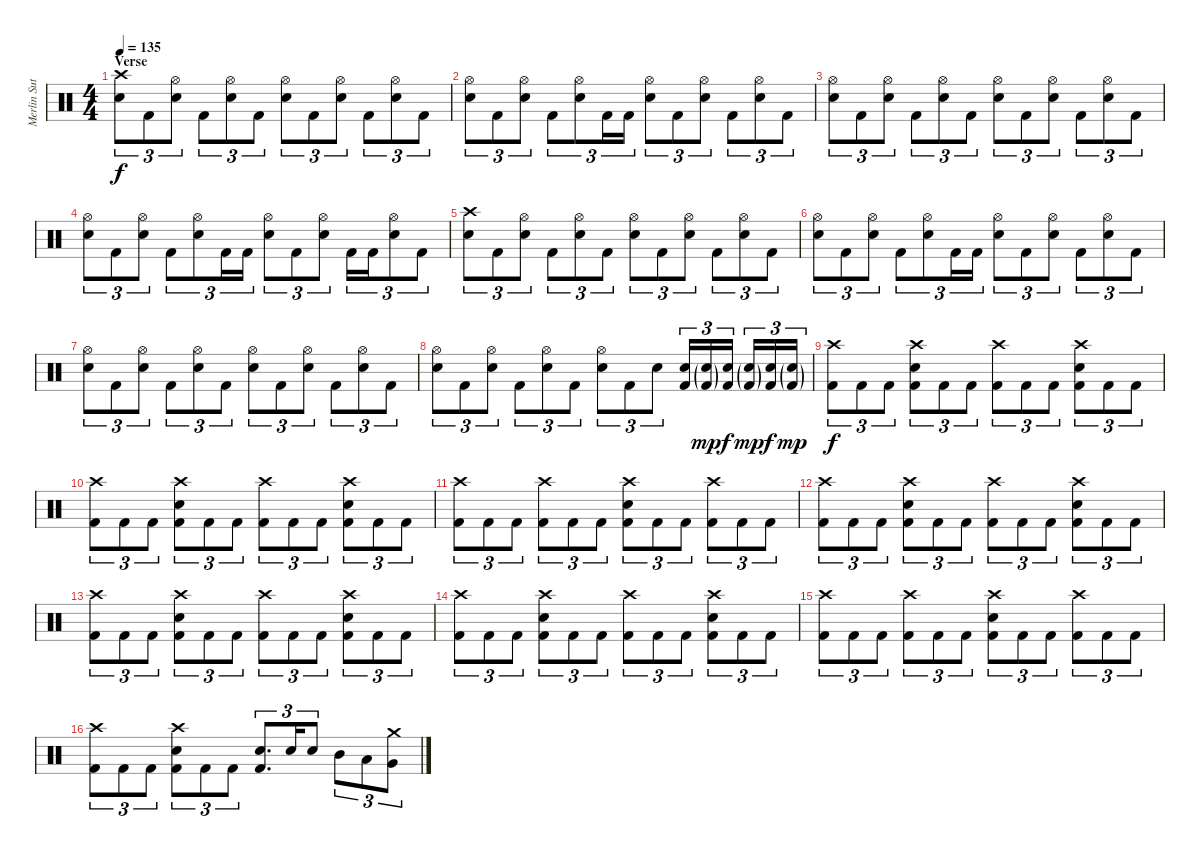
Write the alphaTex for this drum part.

\track ("Merlin Sutter" "Merlin Sut") {instrument percussion}
\staff {score}
\articulation defaults
\ts (4 4)
\section ("" "Verse")
\tempo 135
\clef neutral
\ks c
("Crash high (hit)" "Snare (hit) 2").8{tu (3 2) dy f} "Kick (hit) 2".8{tu (3 2)} ("Hi-Hat (open)" "Snare (hit) 2").8{tu (3 2)} "Kick (hit) 2".8{tu (3 2)} ("Hi-Hat (open)" "Snare (hit) 2").8{tu (3 2)} "Kick (hit) 2".8{tu (3 2)} ("Hi-Hat (open)" "Snare (hit) 2").8{tu (3 2)} "Kick (hit) 2".8{tu (3 2)} ("Hi-Hat (open)" "Snare (hit) 2").8{tu (3 2)} "Kick (hit) 2".8{tu (3 2)} ("Hi-Hat (open)" "Snare (hit) 2").8{tu (3 2)} "Kick (hit) 2".8{tu (3 2)} |
("Hi-Hat (open)" "Snare (hit) 2").8{tu (3 2)} "Kick (hit) 2".8{tu (3 2)} ("Hi-Hat (open)" "Snare (hit) 2").8{tu (3 2)} "Kick (hit) 2".8{tu (3 2)} ("Hi-Hat (open)" "Snare (hit) 2").8{tu (3 2)} "Kick (hit) 2".16{tu (3 2)} "Kick (hit) 2".16{tu (3 2)} ("Hi-Hat (open)" "Snare (hit) 2").8{tu (3 2)} "Kick (hit) 2".8{tu (3 2)} ("Hi-Hat (open)" "Snare (hit) 2").8{tu (3 2)} "Kick (hit) 2".8{tu (3 2)} ("Hi-Hat (open)" "Snare (hit) 2").8{tu (3 2)} "Kick (hit) 2".8{tu (3 2)} |
("Hi-Hat (open)" "Snare (hit) 2").8{tu (3 2)} "Kick (hit) 2".8{tu (3 2)} ("Hi-Hat (open)" "Snare (hit) 2").8{tu (3 2)} "Kick (hit) 2".8{tu (3 2)} ("Hi-Hat (open)" "Snare (hit) 2").8{tu (3 2)} "Kick (hit) 2".8{tu (3 2)} ("Hi-Hat (open)" "Snare (hit) 2").8{tu (3 2)} "Kick (hit) 2".8{tu (3 2)} ("Hi-Hat (open)" "Snare (hit) 2").8{tu (3 2)} "Kick (hit) 2".8{tu (3 2)} ("Hi-Hat (open)" "Snare (hit) 2").8{tu (3 2)} "Kick (hit) 2".8{tu (3 2)} |
("Hi-Hat (open)" "Snare (hit) 2").8{tu (3 2)} "Kick (hit) 2".8{tu (3 2)} ("Hi-Hat (open)" "Snare (hit) 2").8{tu (3 2)} "Kick (hit) 2".8{tu (3 2)} ("Hi-Hat (open)" "Snare (hit) 2").8{tu (3 2)} "Kick (hit) 2".16{tu (3 2)} "Kick (hit) 2".16{tu (3 2)} ("Hi-Hat (open)" "Snare (hit) 2").8{tu (3 2)} "Kick (hit) 2".8{tu (3 2)} ("Hi-Hat (open)" "Snare (hit) 2").8{tu (3 2)} "Kick (hit) 2".16{tu (3 2)} "Kick (hit) 2".16{tu (3 2)} ("Hi-Hat (open)" "Snare (hit) 2").8{tu (3 2)} "Kick (hit) 2".8{tu (3 2)} |
("Crash high (hit)" "Snare (hit) 2").8{tu (3 2)} "Kick (hit) 2".8{tu (3 2)} ("Hi-Hat (open)" "Snare (hit) 2").8{tu (3 2)} "Kick (hit) 2".8{tu (3 2)} ("Hi-Hat (open)" "Snare (hit) 2").8{tu (3 2)} "Kick (hit) 2".8{tu (3 2)} ("Hi-Hat (open)" "Snare (hit) 2").8{tu (3 2)} "Kick (hit) 2".8{tu (3 2)} ("Hi-Hat (open)" "Snare (hit) 2").8{tu (3 2)} "Kick (hit) 2".8{tu (3 2)} ("Hi-Hat (open)" "Snare (hit) 2").8{tu (3 2)} "Kick (hit) 2".8{tu (3 2)} |
("Hi-Hat (open)" "Snare (hit) 2").8{tu (3 2)} "Kick (hit) 2".8{tu (3 2)} ("Hi-Hat (open)" "Snare (hit) 2").8{tu (3 2)} "Kick (hit) 2".8{tu (3 2)} ("Hi-Hat (open)" "Snare (hit) 2").8{tu (3 2)} "Kick (hit) 2".16{tu (3 2)} "Kick (hit) 2".16{tu (3 2)} ("Hi-Hat (open)" "Snare (hit) 2").8{tu (3 2)} "Kick (hit) 2".8{tu (3 2)} ("Hi-Hat (open)" "Snare (hit) 2").8{tu (3 2)} "Kick (hit) 2".8{tu (3 2)} ("Hi-Hat (open)" "Snare (hit) 2").8{tu (3 2)} "Kick (hit) 2".8{tu (3 2)} |
("Hi-Hat (open)" "Snare (hit) 2").8{tu (3 2)} "Kick (hit) 2".8{tu (3 2)} ("Hi-Hat (open)" "Snare (hit) 2").8{tu (3 2)} "Kick (hit) 2".8{tu (3 2)} ("Hi-Hat (open)" "Snare (hit) 2").8{tu (3 2)} "Kick (hit) 2".8{tu (3 2)} ("Hi-Hat (open)" "Snare (hit) 2").8{tu (3 2)} "Kick (hit) 2".8{tu (3 2)} ("Hi-Hat (open)" "Snare (hit) 2").8{tu (3 2)} "Kick (hit) 2".8{tu (3 2)} ("Hi-Hat (open)" "Snare (hit) 2").8{tu (3 2)} "Kick (hit) 2".8{tu (3 2)} |
("Hi-Hat (open)" "Snare (hit) 2").8{tu (3 2)} "Kick (hit) 2".8{tu (3 2)} ("Hi-Hat (open)" "Snare (hit) 2").8{tu (3 2)} "Kick (hit) 2".8{tu (3 2)} ("Hi-Hat (open)" "Snare (hit) 2").8{tu (3 2)} "Kick (hit) 2".8{tu (3 2)} ("Hi-Hat (open)" "Snare (hit) 2").8{tu (3 2)} "Kick (hit) 2".8{tu (3 2)} "Snare (hit) 2".8{tu (3 2)} ("Snare (hit) 2" "Kick (hit) 2").16{tu (3 2)} ("Snare (hit) 2"{g} "Kick (hit) 2"{g}).16{tu (3 2) dy mp} ("Snare (hit) 2" "Kick (hit) 2").16{tu (3 2) dy f beam splitsecondary} ("Snare (hit) 2"{g} "Kick (hit) 2"{g}).16{tu (3 2) dy mp} ("Snare (hit) 2" "Kick (hit) 2").16{tu (3 2) dy f} ("Snare (hit) 2"{g} "Kick (hit) 2"{g}).16{tu (3 2) dy mp} |
("Crash high (hit)" "Kick (hit) 2").8{tu (3 2) dy f} "Kick (hit) 2".8{tu (3 2)} "Kick (hit) 2".8{tu (3 2)} ("Crash high (hit)" "Snare (hit) 2" "Kick (hit) 2").8{tu (3 2)} "Kick (hit) 2".8{tu (3 2)} "Kick (hit) 2".8{tu (3 2)} ("Crash high (hit)" "Kick (hit) 2").8{tu (3 2)} "Kick (hit) 2".8{tu (3 2)} "Kick (hit) 2".8{tu (3 2)} ("Crash high (hit)" "Snare (hit) 2" "Kick (hit) 2").8{tu (3 2)} "Kick (hit) 2".8{tu (3 2)} "Kick (hit) 2".8{tu (3 2)} |
("Crash high (hit)" "Kick (hit) 2").8{tu (3 2)} "Kick (hit) 2".8{tu (3 2)} "Kick (hit) 2".8{tu (3 2)} ("Crash high (hit)" "Snare (hit) 2" "Kick (hit) 2").8{tu (3 2)} "Kick (hit) 2".8{tu (3 2)} "Kick (hit) 2".8{tu (3 2)} ("Crash high (hit)" "Kick (hit) 2").8{tu (3 2)} "Kick (hit) 2".8{tu (3 2)} "Kick (hit) 2".8{tu (3 2)} ("Crash high (hit)" "Snare (hit) 2" "Kick (hit) 2").8{tu (3 2)} "Kick (hit) 2".8{tu (3 2)} "Kick (hit) 2".8{tu (3 2)} |
("Crash high (hit)" "Kick (hit) 2").8{tu (3 2)} "Kick (hit) 2".8{tu (3 2)} "Kick (hit) 2".8{tu (3 2)} ("Crash high (hit)" "Kick (hit) 2").8{tu (3 2)} "Kick (hit) 2".8{tu (3 2)} "Kick (hit) 2".8{tu (3 2)} ("Crash high (hit)" "Snare (hit) 2" "Kick (hit) 2").8{tu (3 2)} "Kick (hit) 2".8{tu (3 2)} "Kick (hit) 2".8{tu (3 2)} ("Crash high (hit)" "Kick (hit) 2").8{tu (3 2)} "Kick (hit) 2".8{tu (3 2)} "Kick (hit) 2".8{tu (3 2)} |
("Crash high (hit)" "Kick (hit) 2").8{tu (3 2)} "Kick (hit) 2".8{tu (3 2)} "Kick (hit) 2".8{tu (3 2)} ("Crash high (hit)" "Snare (hit) 2" "Kick (hit) 2").8{tu (3 2)} "Kick (hit) 2".8{tu (3 2)} "Kick (hit) 2".8{tu (3 2)} ("Crash high (hit)" "Kick (hit) 2").8{tu (3 2)} "Kick (hit) 2".8{tu (3 2)} "Kick (hit) 2".8{tu (3 2)} ("Crash high (hit)" "Snare (hit) 2" "Kick (hit) 2").8{tu (3 2)} "Kick (hit) 2".8{tu (3 2)} "Kick (hit) 2".8{tu (3 2)} |
("Crash high (hit)" "Kick (hit) 2").8{tu (3 2)} "Kick (hit) 2".8{tu (3 2)} "Kick (hit) 2".8{tu (3 2)} ("Crash high (hit)" "Snare (hit) 2" "Kick (hit) 2").8{tu (3 2)} "Kick (hit) 2".8{tu (3 2)} "Kick (hit) 2".8{tu (3 2)} ("Crash high (hit)" "Kick (hit) 2").8{tu (3 2)} "Kick (hit) 2".8{tu (3 2)} "Kick (hit) 2".8{tu (3 2)} ("Crash high (hit)" "Snare (hit) 2" "Kick (hit) 2").8{tu (3 2)} "Kick (hit) 2".8{tu (3 2)} "Kick (hit) 2".8{tu (3 2)} |
("Crash high (hit)" "Kick (hit) 2").8{tu (3 2)} "Kick (hit) 2".8{tu (3 2)} "Kick (hit) 2".8{tu (3 2)} ("Crash high (hit)" "Snare (hit) 2" "Kick (hit) 2").8{tu (3 2)} "Kick (hit) 2".8{tu (3 2)} "Kick (hit) 2".8{tu (3 2)} ("Crash high (hit)" "Kick (hit) 2").8{tu (3 2)} "Kick (hit) 2".8{tu (3 2)} "Kick (hit) 2".8{tu (3 2)} ("Crash high (hit)" "Snare (hit) 2" "Kick (hit) 2").8{tu (3 2)} "Kick (hit) 2".8{tu (3 2)} "Kick (hit) 2".8{tu (3 2)} |
("Crash high (hit)" "Kick (hit) 2").8{tu (3 2)} "Kick (hit) 2".8{tu (3 2)} "Kick (hit) 2".8{tu (3 2)} ("Crash high (hit)" "Kick (hit) 2").8{tu (3 2)} "Kick (hit) 2".8{tu (3 2)} "Kick (hit) 2".8{tu (3 2)} ("Crash high (hit)" "Snare (hit) 2" "Kick (hit) 2").8{tu (3 2)} "Kick (hit) 2".8{tu (3 2)} "Kick (hit) 2".8{tu (3 2)} ("Crash high (hit)" "Kick (hit) 2").8{tu (3 2)} "Kick (hit) 2".8{tu (3 2)} "Kick (hit) 2".8{tu (3 2)} |
("Crash high (hit)" "Kick (hit) 2").8{tu (3 2)} "Kick (hit) 2".8{tu (3 2)} "Kick (hit) 2".8{tu (3 2)} ("Crash high (hit)" "Snare (hit) 2" "Kick (hit) 2").8{tu (3 2)} "Kick (hit) 2".8{tu (3 2)} "Kick (hit) 2".8{tu (3 2)} ("Snare (hit) 2" "Kick (hit) 2").8{d tu (3 2)} "Snare (hit) 2".16{tu (3 2)} "Snare (hit) 2".8{tu (3 2)} "Mid Tom (hit)".8{tu (3 2)} "Low Tom (hit)".8{tu (3 2)} ("Crash medium (hit)" "Very Low Tom (hit)").8{tu (3 2)}
